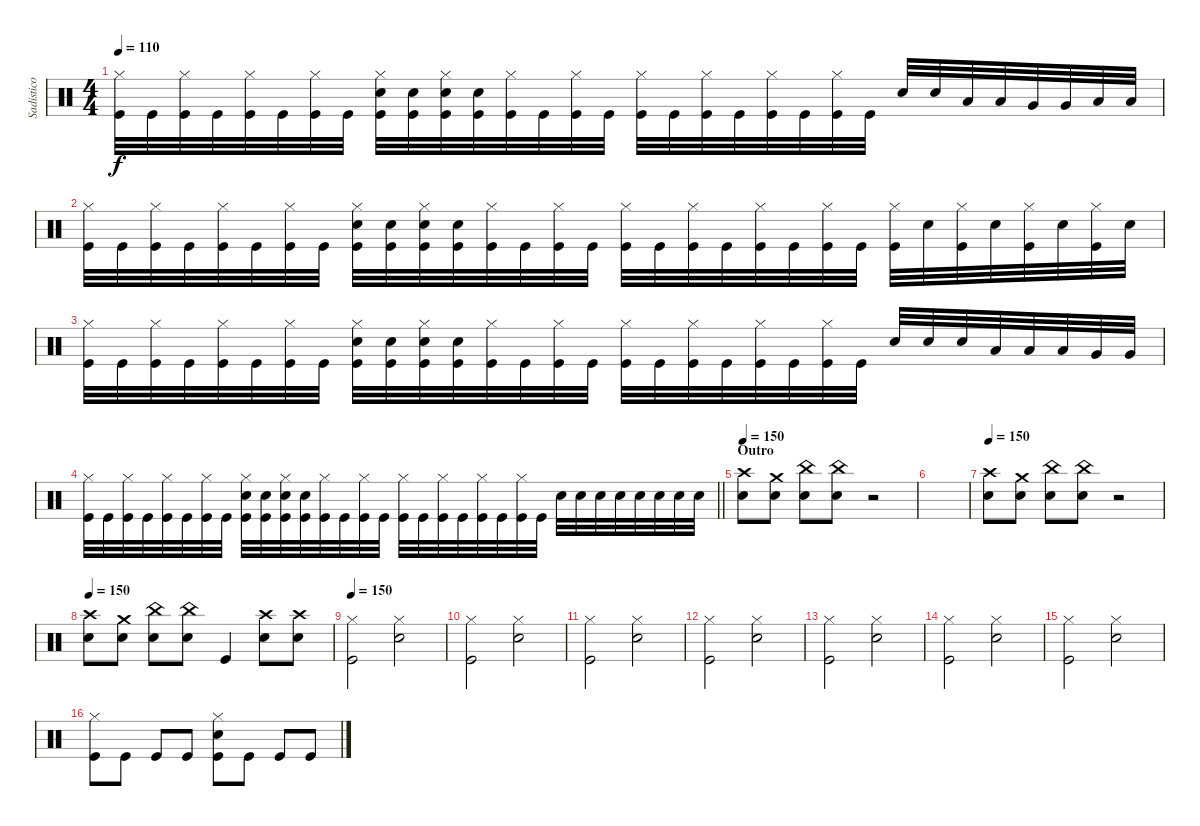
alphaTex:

\track ("Sadistico" "Sadistico") {solo instrument percussion}
\staff {score}
\articulation defaults
\ts (4 4)
\tempo 110
\clef neutral
\ks c
("Hi-Hat (closed)" "Kick (hit)").32{dy f} "Kick (hit)".32 ("Hi-Hat (closed)" "Kick (hit)").32 "Kick (hit)".32 ("Hi-Hat (closed)" "Kick (hit)").32 "Kick (hit)".32 ("Hi-Hat (closed)" "Kick (hit)").32 "Kick (hit)".32 ("Hi-Hat (closed)" "Snare (hit) 2" "Kick (hit)").32 ("Snare (hit) 2" "Kick (hit)").32 ("Hi-Hat (closed)" "Snare (hit) 2" "Kick (hit)").32 ("Snare (hit) 2" "Kick (hit)").32 ("Hi-Hat (closed)" "Kick (hit)").32 "Kick (hit)".32 ("Hi-Hat (closed)" "Kick (hit)").32 "Kick (hit)".32 ("Hi-Hat (closed)" "Kick (hit)").32 "Kick (hit)".32 ("Hi-Hat (closed)" "Kick (hit)").32 "Kick (hit)".32 ("Hi-Hat (closed)" "Kick (hit)").32 "Kick (hit)".32 ("Hi-Hat (closed)" "Kick (hit)").32 "Kick (hit)".32 "Snare (hit) 2".32 "Snare (hit) 2".32 "Low Tom (hit)".32 "Low Tom (hit)".32 "Very Low Tom (hit)".32 "Very Low Tom (hit)".32 "Low Floor Tom (hit)".32 "Low Floor Tom (hit)".32 |
("Hi-Hat (closed)" "Kick (hit)").32 "Kick (hit)".32 ("Hi-Hat (closed)" "Kick (hit)").32 "Kick (hit)".32 ("Hi-Hat (closed)" "Kick (hit)").32 "Kick (hit)".32 ("Hi-Hat (closed)" "Kick (hit)").32 "Kick (hit)".32 ("Hi-Hat (closed)" "Snare (hit) 2" "Kick (hit)").32 ("Snare (hit) 2" "Kick (hit)").32 ("Hi-Hat (closed)" "Snare (hit) 2" "Kick (hit)").32 ("Snare (hit) 2" "Kick (hit)").32 ("Hi-Hat (closed)" "Kick (hit)").32 "Kick (hit)".32 ("Hi-Hat (closed)" "Kick (hit)").32 "Kick (hit)".32 ("Hi-Hat (closed)" "Kick (hit)").32 "Kick (hit)".32 ("Hi-Hat (closed)" "Kick (hit)").32 "Kick (hit)".32 ("Hi-Hat (closed)" "Kick (hit)").32 "Kick (hit)".32 ("Hi-Hat (closed)" "Kick (hit)").32 "Kick (hit)".32 ("Hi-Hat (closed)" "Kick (hit)").32 "Snare (hit) 2".32 ("Hi-Hat (closed)" "Kick (hit)").32 "Snare (hit) 2".32 ("Hi-Hat (closed)" "Kick (hit)").32 "Snare (hit) 2".32 ("Hi-Hat (closed)" "Kick (hit)").32 "Snare (hit) 2".32 |
("Hi-Hat (closed)" "Kick (hit)").32 "Kick (hit)".32 ("Hi-Hat (closed)" "Kick (hit)").32 "Kick (hit)".32 ("Hi-Hat (closed)" "Kick (hit)").32 "Kick (hit)".32 ("Hi-Hat (closed)" "Kick (hit)").32 "Kick (hit)".32 ("Hi-Hat (closed)" "Snare (hit) 2" "Kick (hit)").32 ("Snare (hit) 2" "Kick (hit)").32 ("Hi-Hat (closed)" "Snare (hit) 2" "Kick (hit)").32 ("Snare (hit) 2" "Kick (hit)").32 ("Hi-Hat (closed)" "Kick (hit)").32 "Kick (hit)".32 ("Hi-Hat (closed)" "Kick (hit)").32 "Kick (hit)".32 ("Hi-Hat (closed)" "Kick (hit)").32 "Kick (hit)".32 ("Hi-Hat (closed)" "Kick (hit)").32 "Kick (hit)".32 ("Hi-Hat (closed)" "Kick (hit)").32 "Kick (hit)".32 ("Hi-Hat (closed)" "Kick (hit)").32 "Kick (hit)".32 "Snare (hit) 2".32 "Snare (hit) 2".32 "Snare (hit) 2".32 "Low Tom (hit)".32 "Low Tom (hit)".32 "Low Tom (hit)".32 "Very Low Tom (hit)".32 "Very Low Tom (hit)".32 |
\barLineRight lightlight
("Hi-Hat (closed)" "Kick (hit)").32 "Kick (hit)".32 ("Hi-Hat (closed)" "Kick (hit)").32 "Kick (hit)".32 ("Hi-Hat (closed)" "Kick (hit)").32 "Kick (hit)".32 ("Hi-Hat (closed)" "Kick (hit)").32 "Kick (hit)".32 ("Hi-Hat (closed)" "Snare (hit) 2" "Kick (hit)").32 ("Snare (hit) 2" "Kick (hit)").32 ("Hi-Hat (closed)" "Snare (hit) 2" "Kick (hit)").32 ("Snare (hit) 2" "Kick (hit)").32 ("Hi-Hat (closed)" "Kick (hit)").32 "Kick (hit)".32 ("Hi-Hat (closed)" "Kick (hit)").32 "Kick (hit)".32 ("Hi-Hat (closed)" "Kick (hit)").32 "Kick (hit)".32 ("Hi-Hat (closed)" "Kick (hit)").32 "Kick (hit)".32 ("Hi-Hat (closed)" "Kick (hit)").32 "Kick (hit)".32 ("Hi-Hat (closed)" "Kick (hit)").32 "Kick (hit)".32 "Snare (hit) 2".32 "Snare (hit) 2".32 "Snare (hit) 2".32 "Snare (hit) 2".32 "Snare (hit) 2".32 "Snare (hit) 2".32 "Snare (hit) 2".32 "Snare (hit) 2".32 |
\section ("" "Outro")
\tempo 150
("Crash high (hit)" "Snare (hit) 2").8 ("Crash medium (hit)" "Snare (hit) 2").8 ("China (hit)" "Snare (hit) 2").8 ("China (hit)" "Snare (hit) 2").8 r.2 |
|
\tempo 150
("Crash high (hit)" "Snare (hit) 2").8 ("Crash medium (hit)" "Snare (hit) 2").8 ("China (hit)" "Snare (hit) 2").8 ("China (hit)" "Snare (hit) 2").8 r.2 |
\tempo 150
("Crash high (hit)" "Snare (hit) 2").8 ("Crash medium (hit)" "Snare (hit) 2").8 ("China (hit)" "Snare (hit) 2").8 ("China (hit)" "Snare (hit) 2").8 "Kick (hit)".4 ("Crash high (hit)" "Snare (hit) 2").8 ("Crash high (hit)" "Snare (hit) 2").8 |
\tempo 150
("Hi-Hat (closed)" "Kick (hit)").2 ("Hi-Hat (closed)" "Snare (hit) 2").2 |
("Hi-Hat (closed)" "Kick (hit)").2 ("Hi-Hat (closed)" "Snare (hit) 2").2 |
("Hi-Hat (closed)" "Kick (hit)").2 ("Hi-Hat (closed)" "Snare (hit) 2").2 |
("Hi-Hat (closed)" "Kick (hit)").2 ("Hi-Hat (closed)" "Snare (hit) 2").2 |
("Hi-Hat (closed)" "Kick (hit)").2 ("Hi-Hat (closed)" "Snare (hit) 2").2 |
("Hi-Hat (closed)" "Kick (hit)").2 ("Hi-Hat (closed)" "Snare (hit) 2").2 |
("Hi-Hat (closed)" "Kick (hit)").2 ("Hi-Hat (closed)" "Snare (hit) 2").2 |
("Hi-Hat (closed)" "Kick (hit)").8 "Kick (hit)".8 "Kick (hit)".8 "Kick (hit)".8 ("Hi-Hat (closed)" "Snare (hit) 2" "Kick (hit)").8 "Kick (hit)".8 "Kick (hit)".8 "Kick (hit)".8
